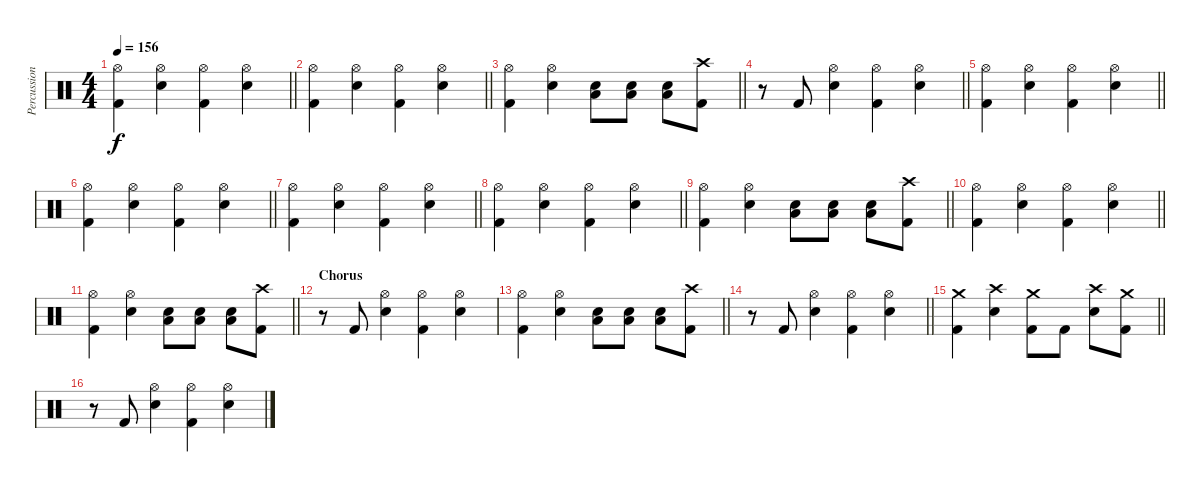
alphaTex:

\track ("Percussion" "Percussion") {instrument percussion}
\staff {score}
\articulation defaults
\ts (4 4)
\tempo 156
\clef neutral
\barLineRight lightlight
\ks c
("Hi-Hat (open)" "Kick (hit) 2").4{dy f} ("Hi-Hat (open)" "Snare (hit) 2").4 ("Hi-Hat (open)" "Kick (hit) 2").4 ("Hi-Hat (open)" "Snare (hit) 2").4 |
\barLineRight lightlight
("Hi-Hat (open)" "Kick (hit) 2").4 ("Hi-Hat (open)" "Snare (hit) 2").4 ("Hi-Hat (open)" "Kick (hit) 2").4 ("Hi-Hat (open)" "Snare (hit) 2").4 |
\barLineRight lightlight
("Hi-Hat (open)" "Kick (hit) 2").4 ("Hi-Hat (open)" "Snare (hit) 2").4 ("Low Tom (hit)" "Snare (hit) 2").8 ("Low Tom (hit)" "Snare (hit) 2").8 ("Low Tom (hit)" "Snare (hit) 2").8 ("Crash high (hit)" "Kick (hit) 2").8 |
\barLineRight lightlight
r.8 "Kick (hit) 2".8 ("Hi-Hat (open)" "Snare (hit) 2").4 ("Hi-Hat (open)" "Kick (hit) 2").4 ("Hi-Hat (open)" "Snare (hit) 2").4 |
\barLineRight lightlight
("Hi-Hat (open)" "Kick (hit) 2").4 ("Hi-Hat (open)" "Snare (hit) 2").4 ("Hi-Hat (open)" "Kick (hit) 2").4 ("Hi-Hat (open)" "Snare (hit) 2").4 |
\barLineRight lightlight
("Hi-Hat (open)" "Kick (hit) 2").4 ("Hi-Hat (open)" "Snare (hit) 2").4 ("Hi-Hat (open)" "Kick (hit) 2").4 ("Hi-Hat (open)" "Snare (hit) 2").4 |
\barLineRight lightlight
("Hi-Hat (open)" "Kick (hit) 2").4 ("Hi-Hat (open)" "Snare (hit) 2").4 ("Hi-Hat (open)" "Kick (hit) 2").4 ("Hi-Hat (open)" "Snare (hit) 2").4 |
\barLineRight lightlight
("Hi-Hat (open)" "Kick (hit) 2").4 ("Hi-Hat (open)" "Snare (hit) 2").4 ("Hi-Hat (open)" "Kick (hit) 2").4 ("Hi-Hat (open)" "Snare (hit) 2").4 |
\barLineRight lightlight
("Hi-Hat (open)" "Kick (hit) 2").4 ("Hi-Hat (open)" "Snare (hit) 2").4 ("Low Tom (hit)" "Snare (hit) 2").8 ("Low Tom (hit)" "Snare (hit) 2").8 ("Low Tom (hit)" "Snare (hit) 2").8 ("Crash high (hit)" "Kick (hit) 2").8 |
\barLineRight lightlight
("Hi-Hat (open)" "Kick (hit) 2").4 ("Hi-Hat (open)" "Snare (hit) 2").4 ("Hi-Hat (open)" "Kick (hit) 2").4 ("Hi-Hat (open)" "Snare (hit) 2").4 |
\barLineRight lightlight
("Hi-Hat (open)" "Kick (hit) 2").4 ("Hi-Hat (open)" "Snare (hit) 2").4 ("Low Tom (hit)" "Snare (hit) 2").8 ("Low Tom (hit)" "Snare (hit) 2").8 ("Low Tom (hit)" "Snare (hit) 2").8 ("Crash high (hit)" "Kick (hit) 2").8 |
\section ("" "Chorus")
r.8 "Kick (hit) 2".8 ("Hi-Hat (open)" "Snare (hit) 2").4 ("Hi-Hat (open)" "Kick (hit) 2").4 ("Hi-Hat (open)" "Snare (hit) 2").4 |
\barLineRight lightlight
("Hi-Hat (open)" "Kick (hit) 2").4 ("Hi-Hat (open)" "Snare (hit) 2").4 ("Low Tom (hit)" "Snare (hit) 2").8 ("Low Tom (hit)" "Snare (hit) 2").8 ("Low Tom (hit)" "Snare (hit) 2").8 ("Crash high (hit)" "Kick (hit) 2").8 |
\barLineRight lightlight
r.8 "Kick (hit) 2".8 ("Hi-Hat (open)" "Snare (hit) 2").4 ("Hi-Hat (open)" "Kick (hit) 2").4 ("Hi-Hat (open)" "Snare (hit) 2").4 |
\barLineRight lightlight
("Crash medium (hit)" "Kick (hit) 2").4 ("Crash high (hit)" "Snare (hit) 2").4 ("Crash medium (hit)" "Kick (hit) 2").8 "Kick (hit) 2".8 ("Crash high (hit)" "Snare (hit) 2").8 ("Crash medium (hit)" "Kick (hit) 2").8 |
r.8 "Kick (hit) 2".8 ("Hi-Hat (open)" "Snare (hit) 2").4 ("Hi-Hat (open)" "Kick (hit) 2").4 ("Hi-Hat (open)" "Snare (hit) 2").4
